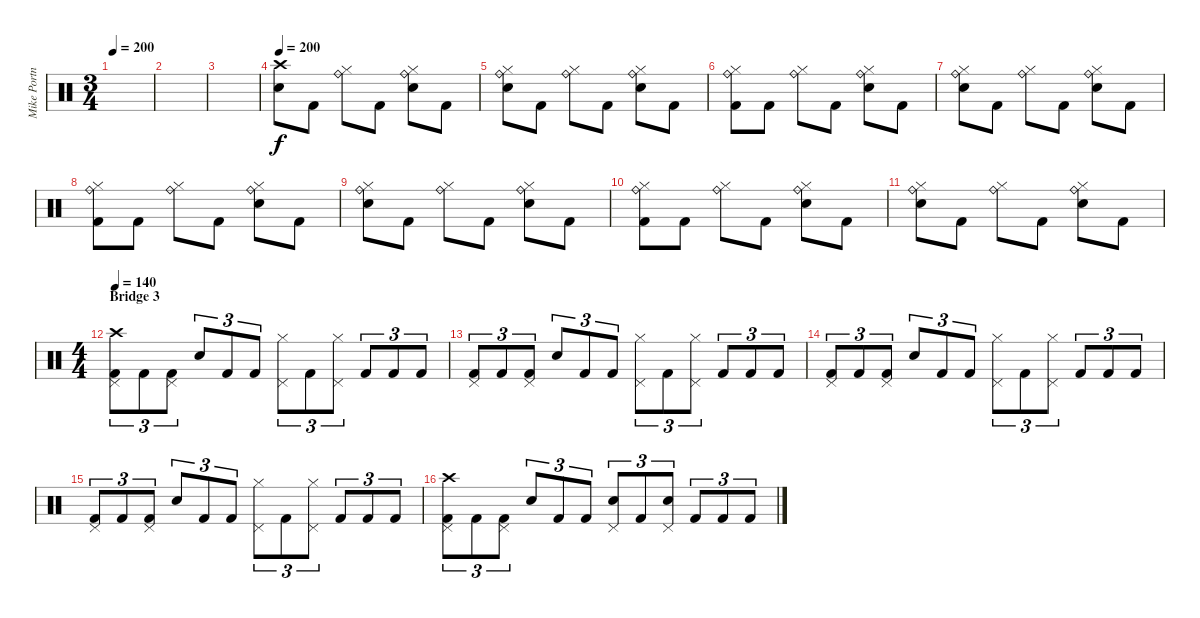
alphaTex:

\track ("Mike Portnoy Drums/Percussion" "Mike Portn") {instrument percussion}
\staff {score}
\articulation defaults
\ts (3 4)
\tempo 200
\clef neutral
\ks c
|
|
|
\section ("" "")
\tempo 200
("Crash high (hit)" "Snare (hit) 2").8 "Kick (hit) 2".8 ("Hi-Hat (closed)" "Ride (bell)").8 "Kick (hit) 2".8 ("Hi-Hat (closed)" "Ride (bell)" "Snare (hit) 2").8 "Kick (hit) 2".8 |
("Hi-Hat (closed)" "Ride (bell)" "Snare (hit) 2").8 "Kick (hit) 2".8 ("Hi-Hat (closed)" "Ride (bell)").8 "Kick (hit) 2".8 ("Hi-Hat (closed)" "Ride (bell)" "Snare (hit) 2").8 "Kick (hit) 2".8 |
("Hi-Hat (closed)" "Ride (bell)" "Kick (hit) 2").8 "Kick (hit) 2".8 ("Hi-Hat (closed)" "Ride (bell)").8 "Kick (hit) 2".8 ("Hi-Hat (closed)" "Ride (bell)" "Snare (hit) 2").8 "Kick (hit) 2".8 |
("Hi-Hat (closed)" "Ride (bell)" "Snare (hit) 2").8 "Kick (hit) 2".8 ("Hi-Hat (closed)" "Ride (bell)").8 "Kick (hit) 2".8 ("Hi-Hat (closed)" "Ride (bell)" "Snare (hit) 2").8 "Kick (hit) 2".8 |
("Hi-Hat (closed)" "Ride (bell)" "Kick (hit) 2").8 "Kick (hit) 2".8 ("Hi-Hat (closed)" "Ride (bell)").8 "Kick (hit) 2".8 ("Hi-Hat (closed)" "Ride (bell)" "Snare (hit) 2").8 "Kick (hit) 2".8 |
("Hi-Hat (closed)" "Ride (bell)" "Snare (hit) 2").8 "Kick (hit) 2".8 ("Hi-Hat (closed)" "Ride (bell)").8 "Kick (hit) 2".8 ("Hi-Hat (closed)" "Ride (bell)" "Snare (hit) 2").8 "Kick (hit) 2".8 |
("Hi-Hat (closed)" "Ride (bell)" "Kick (hit) 2").8 "Kick (hit) 2".8 ("Hi-Hat (closed)" "Ride (bell)").8 "Kick (hit) 2".8 ("Hi-Hat (closed)" "Ride (bell)" "Snare (hit) 2").8 "Kick (hit) 2".8 |
("Hi-Hat (closed)" "Ride (bell)" "Snare (hit) 2").8 "Kick (hit) 2".8 ("Hi-Hat (closed)" "Ride (bell)").8 "Kick (hit) 2".8 ("Hi-Hat (closed)" "Ride (bell)" "Snare (hit) 2").8 "Kick (hit) 2".8 |
\ts (4 4)
\section ("" "Bridge 3")
\tempo 140
("Crash high (hit)" "Kick (hit) 2" "Pedal Hi-Hat (hit)").8{tu (3 2)} "Kick (hit) 2".8{tu (3 2)} ("Kick (hit) 2" "Pedal Hi-Hat (hit)").8{tu (3 2)} "Snare (hit) 2".8{tu (3 2)} "Kick (hit) 2".8{tu (3 2)} "Kick (hit) 2".8{tu (3 2)} ("Hi-Hat (closed)" "Pedal Hi-Hat (hit)").8{tu (3 2)} "Kick (hit) 2".8{tu (3 2)} ("Hi-Hat (closed)" "Pedal Hi-Hat (hit)").8{tu (3 2)} "Kick (hit) 2".8{tu (3 2)} "Kick (hit) 2".8{tu (3 2)} "Kick (hit) 2".8{tu (3 2)} |
("Kick (hit) 2" "Pedal Hi-Hat (hit)").8{tu (3 2)} "Kick (hit) 2".8{tu (3 2)} ("Kick (hit) 2" "Pedal Hi-Hat (hit)").8{tu (3 2)} "Snare (hit) 2".8{tu (3 2)} "Kick (hit) 2".8{tu (3 2)} "Kick (hit) 2".8{tu (3 2)} ("Hi-Hat (closed)" "Pedal Hi-Hat (hit)").8{tu (3 2)} "Kick (hit) 2".8{tu (3 2)} ("Hi-Hat (closed)" "Pedal Hi-Hat (hit)").8{tu (3 2)} "Kick (hit) 2".8{tu (3 2)} "Kick (hit) 2".8{tu (3 2)} "Kick (hit) 2".8{tu (3 2)} |
("Kick (hit) 2" "Pedal Hi-Hat (hit)").8{tu (3 2)} "Kick (hit) 2".8{tu (3 2)} ("Kick (hit) 2" "Pedal Hi-Hat (hit)").8{tu (3 2)} "Snare (hit) 2".8{tu (3 2)} "Kick (hit) 2".8{tu (3 2)} "Kick (hit) 2".8{tu (3 2)} ("Hi-Hat (closed)" "Pedal Hi-Hat (hit)").8{tu (3 2)} "Kick (hit) 2".8{tu (3 2)} ("Hi-Hat (closed)" "Pedal Hi-Hat (hit)").8{tu (3 2)} "Kick (hit) 2".8{tu (3 2)} "Kick (hit) 2".8{tu (3 2)} "Kick (hit) 2".8{tu (3 2)} |
("Kick (hit) 2" "Pedal Hi-Hat (hit)").8{tu (3 2)} "Kick (hit) 2".8{tu (3 2)} ("Kick (hit) 2" "Pedal Hi-Hat (hit)").8{tu (3 2)} "Snare (hit) 2".8{tu (3 2)} "Kick (hit) 2".8{tu (3 2)} "Kick (hit) 2".8{tu (3 2)} ("Hi-Hat (closed)" "Pedal Hi-Hat (hit)").8{tu (3 2)} "Kick (hit) 2".8{tu (3 2)} ("Hi-Hat (closed)" "Pedal Hi-Hat (hit)").8{tu (3 2)} "Kick (hit) 2".8{tu (3 2)} "Kick (hit) 2".8{tu (3 2)} "Kick (hit) 2".8{tu (3 2)} |
("Crash high (hit)" "Kick (hit) 2" "Pedal Hi-Hat (hit)").8{tu (3 2)} "Kick (hit) 2".8{tu (3 2)} ("Kick (hit) 2" "Pedal Hi-Hat (hit)").8{tu (3 2)} "Snare (hit) 2".8{tu (3 2)} "Kick (hit) 2".8{tu (3 2)} "Kick (hit) 2".8{tu (3 2)} ("Snare (hit) 2" "Pedal Hi-Hat (hit)").8{tu (3 2)} "Kick (hit) 2".8{tu (3 2)} ("Snare (hit) 2" "Pedal Hi-Hat (hit)").8{tu (3 2)} "Kick (hit) 2".8{tu (3 2)} "Kick (hit) 2".8{tu (3 2)} "Kick (hit) 2".8{tu (3 2)}
